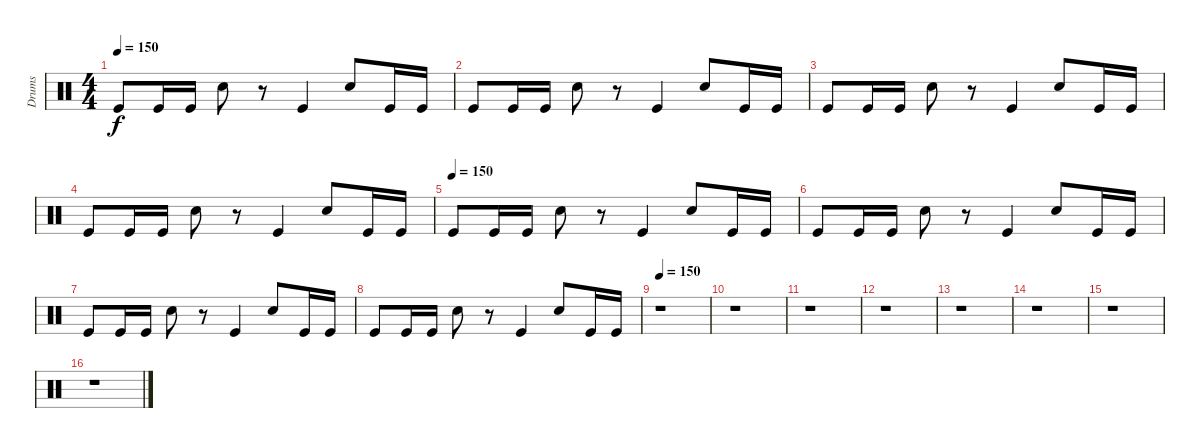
\track ("Drums" "Drums") {instrument percussion}
\staff {score}
\articulation defaults
\ts (4 4)
\tempo 150
\clef neutral
\ks c "Kick (hit)".8{dy f} "Kick (hit)".16 "Kick (hit)".16 "Snare (hit) 2".8
r.8 "Kick (hit)".4 "Snare (hit) 2".8 "Kick (hit)".16 "Kick (hit)".16 |
"Kick (hit)".8 "Kick (hit)".16 "Kick (hit)".16 "Snare (hit) 2".8 r.8 "Kick (hit)".4 "Snare (hit) 2".8 "Kick (hit)".16 "Kick (hit)".16 |
"Kick (hit)".8 "Kick (hit)".16 "Kick (hit)".16 "Snare (hit) 2".8 r.8 "Kick (hit)".4 "Snare (hit) 2".8 "Kick (hit)".16 "Kick (hit)".16 |
"Kick (hit)".8 "Kick (hit)".16 "Kick (hit)".16 "Snare (hit) 2".8 r.8 "Kick (hit)".4 "Snare (hit) 2".8 "Kick (hit)".16 "Kick (hit)".16 |
\tempo (150)
"Kick (hit)".8 "Kick (hit)".16 "Kick (hit)".16 "Snare (hit) 2".8 r.8 "Kick (hit)".4 "Snare (hit) 2".8 "Kick (hit)".16 "Kick (hit)".16 |
"Kick (hit)".8 "Kick (hit)".16 "Kick (hit)".16 "Snare (hit) 2".8 r.8 "Kick (hit)".4 "Snare (hit) 2".8 "Kick (hit)".16 "Kick (hit)".16 |
"Kick (hit)".8 "Kick (hit)".16 "Kick (hit)".16 "Snare (hit) 2".8 r.8 "Kick (hit)".4 "Snare (hit) 2".8 "Kick (hit)".16 "Kick (hit)".16 |
"Kick (hit)".8 "Kick (hit)".16 "Kick (hit)".16 "Snare (hit) 2".8 r.8 "Kick (hit)".4 "Snare (hit) 2".8 "Kick (hit)".16 "Kick (hit)".16 |
\tempo 150
r.1 |
r.1 |
r.1 |
r.1 |
r.1 |
r.1 |
r.1 |
r.1
